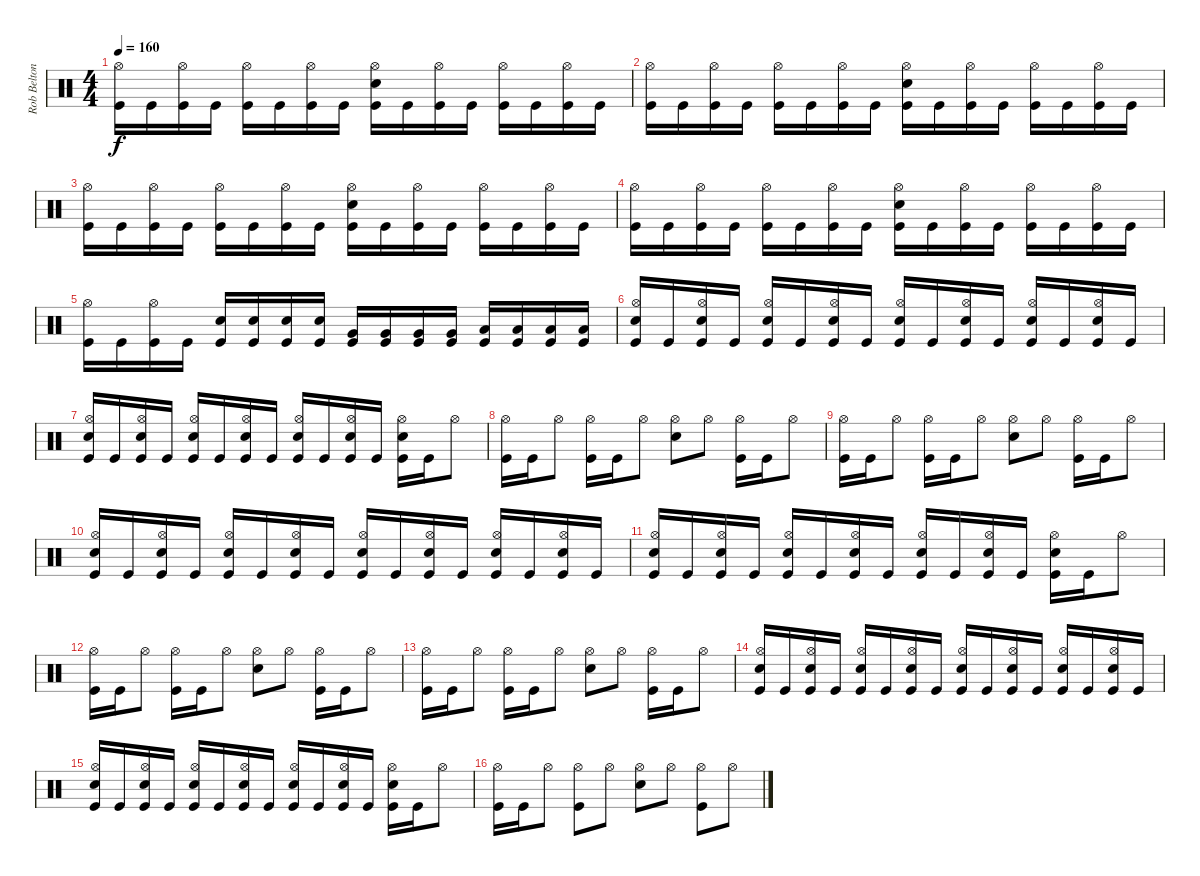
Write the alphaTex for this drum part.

\track ("Rob Belton" "Rob Belton") {instrument percussion}
\staff {score}
\articulation defaults
\ts (4 4)
\tempo 160
\clef neutral
\ks c
("Kick (hit)" "Hi-Hat (open)").16{dy f} "Kick (hit)".16 ("Kick (hit)" "Hi-Hat (open)").16 "Kick (hit)".16 ("Kick (hit)" "Hi-Hat (open)").16 "Kick (hit)".16 ("Kick (hit)" "Hi-Hat (open)").16 "Kick (hit)".16 ("Kick (hit)" "Hi-Hat (open)" "Snare (hit) 2").16 "Kick (hit)".16 ("Kick (hit)" "Hi-Hat (open)").16 "Kick (hit)".16 ("Kick (hit)" "Hi-Hat (open)").16 "Kick (hit)".16 ("Kick (hit)" "Hi-Hat (open)").16 "Kick (hit)".16 |
("Kick (hit)" "Hi-Hat (open)").16 "Kick (hit)".16 ("Kick (hit)" "Hi-Hat (open)").16 "Kick (hit)".16 ("Kick (hit)" "Hi-Hat (open)").16 "Kick (hit)".16 ("Kick (hit)" "Hi-Hat (open)").16 "Kick (hit)".16 ("Kick (hit)" "Hi-Hat (open)" "Snare (hit) 2").16 "Kick (hit)".16 ("Kick (hit)" "Hi-Hat (open)").16 "Kick (hit)".16 ("Kick (hit)" "Hi-Hat (open)").16 "Kick (hit)".16 ("Kick (hit)" "Hi-Hat (open)").16 "Kick (hit)".16 |
("Kick (hit)" "Hi-Hat (open)").16 "Kick (hit)".16 ("Kick (hit)" "Hi-Hat (open)").16 "Kick (hit)".16 ("Kick (hit)" "Hi-Hat (open)").16 "Kick (hit)".16 ("Kick (hit)" "Hi-Hat (open)").16 "Kick (hit)".16 ("Kick (hit)" "Hi-Hat (open)" "Snare (hit) 2").16 "Kick (hit)".16 ("Kick (hit)" "Hi-Hat (open)").16 "Kick (hit)".16 ("Kick (hit)" "Hi-Hat (open)").16 "Kick (hit)".16 ("Kick (hit)" "Hi-Hat (open)").16 "Kick (hit)".16 |
("Kick (hit)" "Hi-Hat (open)").16 "Kick (hit)".16 ("Kick (hit)" "Hi-Hat (open)").16 "Kick (hit)".16 ("Kick (hit)" "Hi-Hat (open)").16 "Kick (hit)".16 ("Kick (hit)" "Hi-Hat (open)").16 "Kick (hit)".16 ("Kick (hit)" "Hi-Hat (open)" "Snare (hit) 2").16 "Kick (hit)".16 ("Kick (hit)" "Hi-Hat (open)").16 "Kick (hit)".16 ("Kick (hit)" "Hi-Hat (open)").16 "Kick (hit)".16 ("Kick (hit)" "Hi-Hat (open)").16 "Kick (hit)".16 |
("Kick (hit)" "Hi-Hat (open)").16 "Kick (hit)".16 ("Kick (hit)" "Hi-Hat (open)").16 "Kick (hit)".16 ("Kick (hit)" "Snare (hit) 2").16 ("Kick (hit)" "Snare (hit) 2").16 ("Kick (hit)" "Snare (hit) 2").16 ("Kick (hit)" "Snare (hit) 2").16 ("Kick (hit)" "Very Low Tom (hit)").16 ("Kick (hit)" "Very Low Tom (hit)").16 ("Kick (hit)" "Very Low Tom (hit)").16 ("Kick (hit)" "Very Low Tom (hit)").16 ("Kick (hit)" "Low Floor Tom (hit)").16 ("Kick (hit)" "Low Floor Tom (hit)").16 ("Kick (hit)" "Low Floor Tom (hit)").16 ("Kick (hit)" "Low Floor Tom (hit)").16 |
("Snare (hit) 2" "Hi-Hat (open)" "Kick (hit)").16 "Kick (hit)".16 ("Snare (hit) 2" "Hi-Hat (open)" "Kick (hit)").16 "Kick (hit)".16 ("Snare (hit) 2" "Hi-Hat (open)" "Kick (hit)").16 "Kick (hit)".16 ("Snare (hit) 2" "Hi-Hat (open)" "Kick (hit)").16 "Kick (hit)".16 ("Snare (hit) 2" "Hi-Hat (open)" "Kick (hit)").16 "Kick (hit)".16 ("Snare (hit) 2" "Hi-Hat (open)" "Kick (hit)").16 "Kick (hit)".16 ("Snare (hit) 2" "Hi-Hat (open)" "Kick (hit)").16 "Kick (hit)".16 ("Snare (hit) 2" "Hi-Hat (open)" "Kick (hit)").16 "Kick (hit)".16 |
("Snare (hit) 2" "Hi-Hat (open)" "Kick (hit)").16 "Kick (hit)".16 ("Snare (hit) 2" "Hi-Hat (open)" "Kick (hit)").16 "Kick (hit)".16 ("Snare (hit) 2" "Hi-Hat (open)" "Kick (hit)").16 "Kick (hit)".16 ("Snare (hit) 2" "Hi-Hat (open)" "Kick (hit)").16 "Kick (hit)".16 ("Snare (hit) 2" "Hi-Hat (open)" "Kick (hit)").16 "Kick (hit)".16 ("Snare (hit) 2" "Hi-Hat (open)" "Kick (hit)").16 "Kick (hit)".16 ("Snare (hit) 2" "Hi-Hat (open)" "Kick (hit)").16 "Kick (hit)".16 "Hi-Hat (open)".8 |
("Kick (hit)" "Hi-Hat (open)").16 "Kick (hit)".16 "Hi-Hat (open)".8 ("Kick (hit)" "Hi-Hat (open)").16 "Kick (hit)".16 "Hi-Hat (open)".8 ("Hi-Hat (open)" "Snare (hit) 2").8 "Hi-Hat (open)".8 ("Kick (hit)" "Hi-Hat (open)").16 "Kick (hit)".16 "Hi-Hat (open)".8 |
("Kick (hit)" "Hi-Hat (open)").16 "Kick (hit)".16 "Hi-Hat (open)".8 ("Kick (hit)" "Hi-Hat (open)").16 "Kick (hit)".16 "Hi-Hat (open)".8 ("Hi-Hat (open)" "Snare (hit) 2").8 "Hi-Hat (open)".8 ("Kick (hit)" "Hi-Hat (open)").16 "Kick (hit)".16 "Hi-Hat (open)".8 |
("Snare (hit) 2" "Hi-Hat (open)" "Kick (hit)").16 "Kick (hit)".16 ("Snare (hit) 2" "Hi-Hat (open)" "Kick (hit)").16 "Kick (hit)".16 ("Snare (hit) 2" "Hi-Hat (open)" "Kick (hit)").16 "Kick (hit)".16 ("Snare (hit) 2" "Hi-Hat (open)" "Kick (hit)").16 "Kick (hit)".16 ("Snare (hit) 2" "Hi-Hat (open)" "Kick (hit)").16 "Kick (hit)".16 ("Snare (hit) 2" "Hi-Hat (open)" "Kick (hit)").16 "Kick (hit)".16 ("Snare (hit) 2" "Hi-Hat (open)" "Kick (hit)").16 "Kick (hit)".16 ("Snare (hit) 2" "Hi-Hat (open)" "Kick (hit)").16 "Kick (hit)".16 |
("Snare (hit) 2" "Hi-Hat (open)" "Kick (hit)").16 "Kick (hit)".16 ("Snare (hit) 2" "Hi-Hat (open)" "Kick (hit)").16 "Kick (hit)".16 ("Snare (hit) 2" "Hi-Hat (open)" "Kick (hit)").16 "Kick (hit)".16 ("Snare (hit) 2" "Hi-Hat (open)" "Kick (hit)").16 "Kick (hit)".16 ("Snare (hit) 2" "Hi-Hat (open)" "Kick (hit)").16 "Kick (hit)".16 ("Snare (hit) 2" "Hi-Hat (open)" "Kick (hit)").16 "Kick (hit)".16 ("Snare (hit) 2" "Hi-Hat (open)" "Kick (hit)").16 "Kick (hit)".16 "Hi-Hat (open)".8 |
("Kick (hit)" "Hi-Hat (open)").16 "Kick (hit)".16 "Hi-Hat (open)".8 ("Kick (hit)" "Hi-Hat (open)").16 "Kick (hit)".16 "Hi-Hat (open)".8 ("Hi-Hat (open)" "Snare (hit) 2").8 "Hi-Hat (open)".8 ("Kick (hit)" "Hi-Hat (open)").16 "Kick (hit)".16 "Hi-Hat (open)".8 |
("Kick (hit)" "Hi-Hat (open)").16 "Kick (hit)".16 "Hi-Hat (open)".8 ("Kick (hit)" "Hi-Hat (open)").16 "Kick (hit)".16 "Hi-Hat (open)".8 ("Hi-Hat (open)" "Snare (hit) 2").8 "Hi-Hat (open)".8 ("Kick (hit)" "Hi-Hat (open)").16 "Kick (hit)".16 "Hi-Hat (open)".8 |
("Snare (hit) 2" "Hi-Hat (open)" "Kick (hit)").16 "Kick (hit)".16 ("Snare (hit) 2" "Hi-Hat (open)" "Kick (hit)").16 "Kick (hit)".16 ("Snare (hit) 2" "Hi-Hat (open)" "Kick (hit)").16 "Kick (hit)".16 ("Snare (hit) 2" "Hi-Hat (open)" "Kick (hit)").16 "Kick (hit)".16 ("Snare (hit) 2" "Hi-Hat (open)" "Kick (hit)").16 "Kick (hit)".16 ("Snare (hit) 2" "Hi-Hat (open)" "Kick (hit)").16 "Kick (hit)".16 ("Snare (hit) 2" "Hi-Hat (open)" "Kick (hit)").16 "Kick (hit)".16 ("Snare (hit) 2" "Hi-Hat (open)" "Kick (hit)").16 "Kick (hit)".16 |
("Snare (hit) 2" "Hi-Hat (open)" "Kick (hit)").16 "Kick (hit)".16 ("Snare (hit) 2" "Hi-Hat (open)" "Kick (hit)").16 "Kick (hit)".16 ("Snare (hit) 2" "Hi-Hat (open)" "Kick (hit)").16 "Kick (hit)".16 ("Snare (hit) 2" "Hi-Hat (open)" "Kick (hit)").16 "Kick (hit)".16 ("Snare (hit) 2" "Hi-Hat (open)" "Kick (hit)").16 "Kick (hit)".16 ("Snare (hit) 2" "Hi-Hat (open)" "Kick (hit)").16 "Kick (hit)".16 ("Snare (hit) 2" "Hi-Hat (open)" "Kick (hit)").16 "Kick (hit)".16 "Hi-Hat (open)".8 |
("Kick (hit)" "Hi-Hat (open)").16 "Kick (hit)".16 "Hi-Hat (open)".8 ("Kick (hit)" "Hi-Hat (open)").8 "Hi-Hat (open)".8 ("Hi-Hat (open)" "Snare (hit) 2").8 "Hi-Hat (open)".8 ("Kick (hit)" "Hi-Hat (open)").8 "Hi-Hat (open)".8
